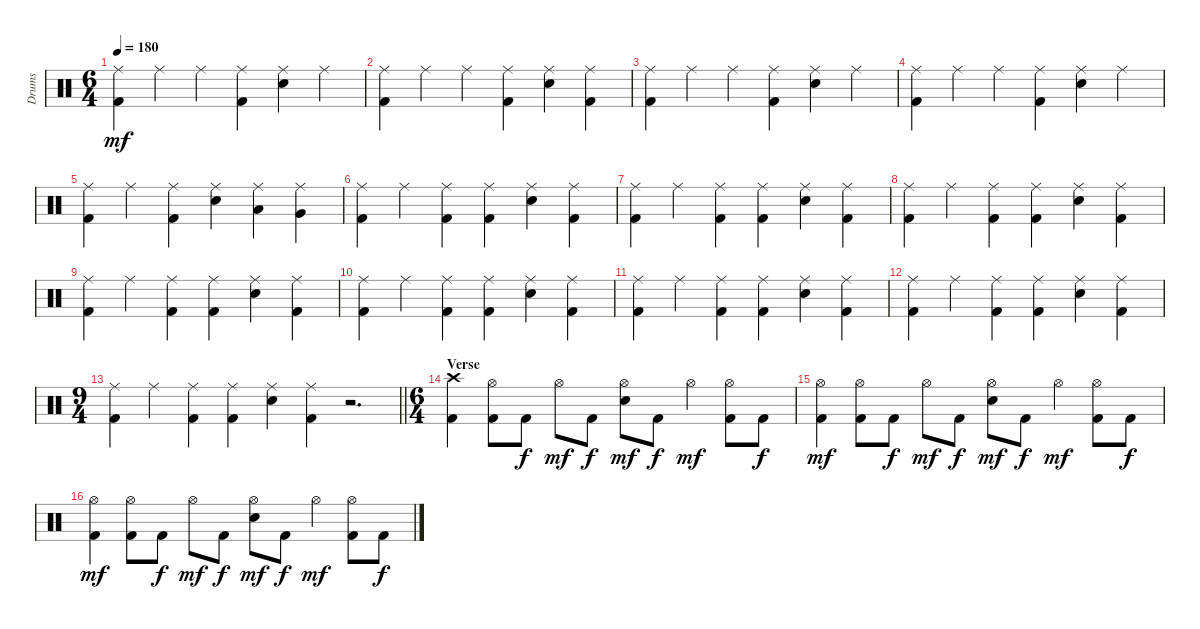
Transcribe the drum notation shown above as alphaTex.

\track ("Drums" "Drums") {instrument percussion}
\staff {score}
\articulation defaults
\ts (6 4)
\tempo 180
\clef neutral
\ks c
("Ride (middle)" "Kick (hit) 2").4{dy mf} "Ride (middle)".4 "Ride (middle)".4 ("Ride (middle)" "Kick (hit) 2").4 ("Ride (middle)" "Snare (hit) 2").4 "Ride (middle)".4 |
("Ride (middle)" "Kick (hit) 2").4 "Ride (middle)".4 "Ride (middle)".4 ("Ride (middle)" "Kick (hit) 2").4 ("Ride (middle)" "Snare (hit) 2").4 ("Ride (middle)" "Kick (hit) 2").4 |
("Ride (middle)" "Kick (hit) 2").4 "Ride (middle)".4 "Ride (middle)".4 ("Ride (middle)" "Kick (hit) 2").4 ("Ride (middle)" "Snare (hit) 2").4 "Ride (middle)".4 |
("Ride (middle)" "Kick (hit) 2").4 "Ride (middle)".4 "Ride (middle)".4 ("Ride (middle)" "Kick (hit) 2").4 ("Ride (middle)" "Snare (hit) 2").4 "Ride (middle)".4 |
("Ride (middle)" "Kick (hit) 2").4 "Ride (middle)".4 ("Ride (middle)" "Kick (hit) 2").4 ("Ride (middle)" "Snare (hit) 2").4 ("Ride (middle)" "Low Tom (hit)").4 ("Ride (middle)" "Very Low Tom (hit)").4 |
("Ride (middle)" "Kick (hit) 2").4 "Ride (middle)".4 ("Ride (middle)" "Kick (hit) 2").4 ("Ride (middle)" "Kick (hit) 2").4 ("Ride (middle)" "Snare (hit) 2").4 ("Ride (middle)" "Kick (hit) 2").4 |
("Ride (middle)" "Kick (hit) 2").4 "Ride (middle)".4 ("Ride (middle)" "Kick (hit) 2").4 ("Ride (middle)" "Kick (hit) 2").4 ("Ride (middle)" "Snare (hit) 2").4 ("Ride (middle)" "Kick (hit) 2").4 |
("Ride (middle)" "Kick (hit) 2").4 "Ride (middle)".4 ("Ride (middle)" "Kick (hit) 2").4 ("Ride (middle)" "Kick (hit) 2").4 ("Ride (middle)" "Snare (hit) 2").4 ("Ride (middle)" "Kick (hit) 2").4 |
("Ride (middle)" "Kick (hit) 2").4 "Ride (middle)".4 ("Ride (middle)" "Kick (hit) 2").4 ("Ride (middle)" "Kick (hit) 2").4 ("Ride (middle)" "Snare (hit) 2").4 ("Ride (middle)" "Kick (hit) 2").4 |
("Ride (middle)" "Kick (hit) 2").4 "Ride (middle)".4 ("Ride (middle)" "Kick (hit) 2").4 ("Ride (middle)" "Kick (hit) 2").4 ("Ride (middle)" "Snare (hit) 2").4 ("Ride (middle)" "Kick (hit) 2").4 |
("Ride (middle)" "Kick (hit) 2").4 "Ride (middle)".4 ("Ride (middle)" "Kick (hit) 2").4 ("Ride (middle)" "Kick (hit) 2").4 ("Ride (middle)" "Snare (hit) 2").4 ("Ride (middle)" "Kick (hit) 2").4 |
("Ride (middle)" "Kick (hit) 2").4 "Ride (middle)".4 ("Ride (middle)" "Kick (hit) 2").4 ("Ride (middle)" "Kick (hit) 2").4 ("Ride (middle)" "Snare (hit) 2").4 ("Ride (middle)" "Kick (hit) 2").4 |
\ts (9 4)
\barLineRight lightlight
("Ride (middle)" "Kick (hit) 2").4 "Ride (middle)".4 ("Ride (middle)" "Kick (hit) 2").4 ("Ride (middle)" "Kick (hit) 2").4 ("Ride (middle)" "Snare (hit) 2").4 ("Ride (middle)" "Kick (hit) 2").4 r.2{d} |
\ts (6 4)
\section ("" "Verse")
("Crash high (hit)" "Kick (hit) 2").4 ("Hi-Hat (open)" "Kick (hit) 2").8 "Kick (hit) 2".8{dy f} "Hi-Hat (open)".8{dy mf} "Kick (hit) 2".8{dy f} ("Hi-Hat (open)" "Snare (hit) 2").8{dy mf} "Kick (hit) 2".8{dy f} "Hi-Hat (open)".4{dy mf} ("Hi-Hat (open)" "Kick (hit) 2").8 "Kick (hit) 2".8{dy f} |
("Hi-Hat (open)" "Kick (hit) 2").4{dy mf} ("Hi-Hat (open)" "Kick (hit) 2").8 "Kick (hit) 2".8{dy f} "Hi-Hat (open)".8{dy mf} "Kick (hit) 2".8{dy f} ("Hi-Hat (open)" "Snare (hit) 2").8{dy mf} "Kick (hit) 2".8{dy f} "Hi-Hat (open)".4{dy mf} ("Hi-Hat (open)" "Kick (hit) 2").8 "Kick (hit) 2".8{dy f} |
("Hi-Hat (open)" "Kick (hit) 2").4{dy mf} ("Hi-Hat (open)" "Kick (hit) 2").8 "Kick (hit) 2".8{dy f} "Hi-Hat (open)".8{dy mf} "Kick (hit) 2".8{dy f} ("Hi-Hat (open)" "Snare (hit) 2").8{dy mf} "Kick (hit) 2".8{dy f} "Hi-Hat (open)".4{dy mf} ("Hi-Hat (open)" "Kick (hit) 2").8 "Kick (hit) 2".8{dy f}
